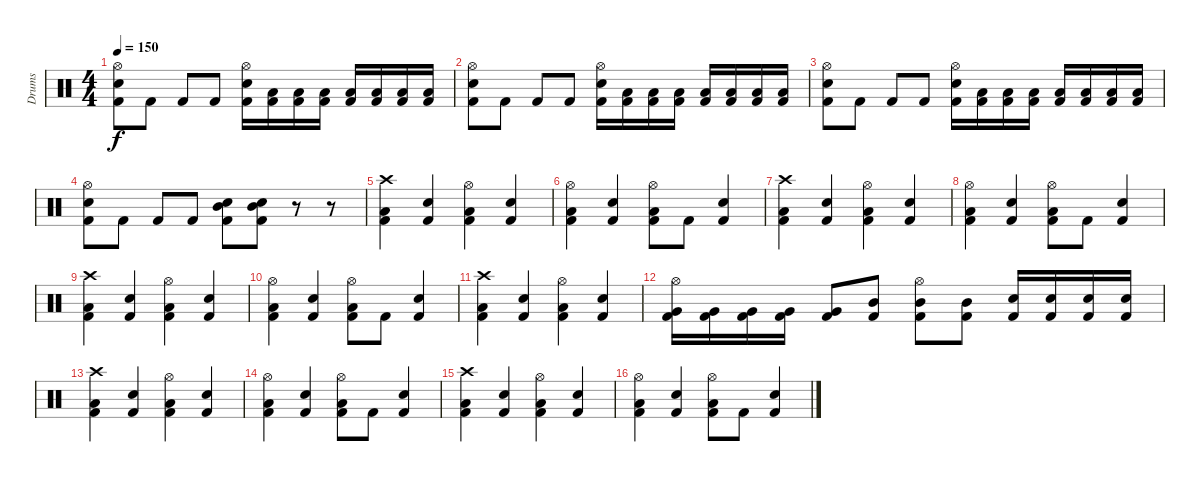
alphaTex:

\track ("Drums" "Drums") {instrument percussion}
\staff {score}
\articulation defaults
\ts (4 4)
\tempo 150
\clef neutral
\ks c
("Hi-Hat (open)" "Snare (hit) 2" "Kick (hit) 2").8{dy f} "Kick (hit) 2".8 "Kick (hit) 2".8 "Kick (hit) 2".8 ("Hi-Hat (open)" "Snare (hit) 2" "Kick (hit) 2").16 ("Low Floor Tom (hit)" "Kick (hit) 2").16 ("Low Floor Tom (hit)" "Kick (hit) 2").16 ("Low Floor Tom (hit)" "Kick (hit) 2").16 ("Low Floor Tom (hit)" "Kick (hit) 2").16 ("Low Floor Tom (hit)" "Kick (hit) 2").16 ("Low Floor Tom (hit)" "Kick (hit) 2").16 ("Low Floor Tom (hit)" "Kick (hit) 2").16 |
("Hi-Hat (open)" "Snare (hit) 2" "Kick (hit) 2").8 "Kick (hit) 2".8 "Kick (hit) 2".8 "Kick (hit) 2".8 ("Hi-Hat (open)" "Snare (hit) 2" "Kick (hit) 2").16 ("Low Floor Tom (hit)" "Kick (hit) 2").16 ("Low Floor Tom (hit)" "Kick (hit) 2").16 ("Low Floor Tom (hit)" "Kick (hit) 2").16 ("Low Floor Tom (hit)" "Kick (hit) 2").16 ("Low Floor Tom (hit)" "Kick (hit) 2").16 ("Low Floor Tom (hit)" "Kick (hit) 2").16 ("Low Floor Tom (hit)" "Kick (hit) 2").16 |
("Hi-Hat (open)" "Snare (hit) 2" "Kick (hit) 2").8 "Kick (hit) 2".8 "Kick (hit) 2".8 "Kick (hit) 2".8 ("Hi-Hat (open)" "Snare (hit) 2" "Kick (hit) 2").16 ("Low Floor Tom (hit)" "Kick (hit) 2").16 ("Low Floor Tom (hit)" "Kick (hit) 2").16 ("Low Floor Tom (hit)" "Kick (hit) 2").16 ("Low Floor Tom (hit)" "Kick (hit) 2").16 ("Low Floor Tom (hit)" "Kick (hit) 2").16 ("Low Floor Tom (hit)" "Kick (hit) 2").16 ("Low Floor Tom (hit)" "Kick (hit) 2").16 |
("Hi-Hat (open)" "Snare (hit) 2" "Kick (hit) 2").8 "Kick (hit) 2".8 "Kick (hit) 2".8 "Kick (hit) 2".8 ("Snare (hit) 2" "Mid Tom (hit)" "Kick (hit) 2").8 ("Snare (hit) 2" "Mid Tom (hit)" "Kick (hit) 2").8 r.8 r.8 |
("Crash high (hit)" "Low Floor Tom (hit)" "Kick (hit) 2").4 ("Snare (hit) 2" "Kick (hit) 2").4 ("Hi-Hat (open)" "Low Floor Tom (hit)" "Kick (hit) 2").4 ("Snare (hit) 2" "Kick (hit) 2").4 |
("Hi-Hat (open)" "Low Floor Tom (hit)" "Kick (hit) 2").4 ("Snare (hit) 2" "Kick (hit) 2").4 ("Hi-Hat (open)" "Low Floor Tom (hit)" "Kick (hit) 2").8 "Kick (hit) 2".8 ("Snare (hit) 2" "Kick (hit) 2").4 |
("Crash high (hit)" "Low Floor Tom (hit)" "Kick (hit) 2").4 ("Snare (hit) 2" "Kick (hit) 2").4 ("Hi-Hat (open)" "Low Floor Tom (hit)" "Kick (hit) 2").4 ("Snare (hit) 2" "Kick (hit) 2").4 |
("Hi-Hat (open)" "Low Floor Tom (hit)" "Kick (hit) 2").4 ("Snare (hit) 2" "Kick (hit) 2").4 ("Hi-Hat (open)" "Low Floor Tom (hit)" "Kick (hit) 2").8 "Kick (hit) 2".8 ("Snare (hit) 2" "Kick (hit) 2").4 |
("Crash high (hit)" "Low Floor Tom (hit)" "Kick (hit) 2").4 ("Snare (hit) 2" "Kick (hit) 2").4 ("Hi-Hat (open)" "Low Floor Tom (hit)" "Kick (hit) 2").4 ("Snare (hit) 2" "Kick (hit) 2").4 |
("Hi-Hat (open)" "Low Floor Tom (hit)" "Kick (hit) 2").4 ("Snare (hit) 2" "Kick (hit) 2").4 ("Hi-Hat (open)" "Low Floor Tom (hit)" "Kick (hit) 2").8 "Kick (hit) 2".8 ("Snare (hit) 2" "Kick (hit) 2").4 |
("Crash high (hit)" "Low Floor Tom (hit)" "Kick (hit) 2").4 ("Snare (hit) 2" "Kick (hit) 2").4 ("Hi-Hat (open)" "Low Floor Tom (hit)" "Kick (hit) 2").4 ("Snare (hit) 2" "Kick (hit) 2").4 |
("Hi-Hat (open)" "Very Low Tom (hit)" "Kick (hit) 2").16 ("Very Low Tom (hit)" "Kick (hit) 2").16 ("Very Low Tom (hit)" "Kick (hit) 2").16 ("Very Low Tom (hit)" "Kick (hit) 2").16 ("Very Low Tom (hit)" "Kick (hit) 2").8 ("Mid Tom (hit)" "Kick (hit) 2").8 ("Hi-Hat (open)" "Mid Tom (hit)" "Kick (hit) 2").8 ("Mid Tom (hit)" "Kick (hit) 2").8 ("Snare (hit) 2" "Kick (hit) 2").16 ("Snare (hit) 2" "Kick (hit) 2").16 ("Snare (hit) 2" "Kick (hit) 2").16 ("Snare (hit) 2" "Kick (hit) 2").16 |
("Crash high (hit)" "Low Floor Tom (hit)" "Kick (hit) 2").4 ("Snare (hit) 2" "Kick (hit) 2").4 ("Hi-Hat (open)" "Low Floor Tom (hit)" "Kick (hit) 2").4 ("Snare (hit) 2" "Kick (hit) 2").4 |
("Hi-Hat (open)" "Low Floor Tom (hit)" "Kick (hit) 2").4 ("Snare (hit) 2" "Kick (hit) 2").4 ("Hi-Hat (open)" "Low Floor Tom (hit)" "Kick (hit) 2").8 "Kick (hit) 2".8 ("Snare (hit) 2" "Kick (hit) 2").4 |
("Crash high (hit)" "Low Floor Tom (hit)" "Kick (hit) 2").4 ("Snare (hit) 2" "Kick (hit) 2").4 ("Hi-Hat (open)" "Low Floor Tom (hit)" "Kick (hit) 2").4 ("Snare (hit) 2" "Kick (hit) 2").4 |
("Hi-Hat (open)" "Low Floor Tom (hit)" "Kick (hit) 2").4 ("Snare (hit) 2" "Kick (hit) 2").4 ("Hi-Hat (open)" "Low Floor Tom (hit)" "Kick (hit) 2").8 "Kick (hit) 2".8 ("Snare (hit) 2" "Kick (hit) 2").4
